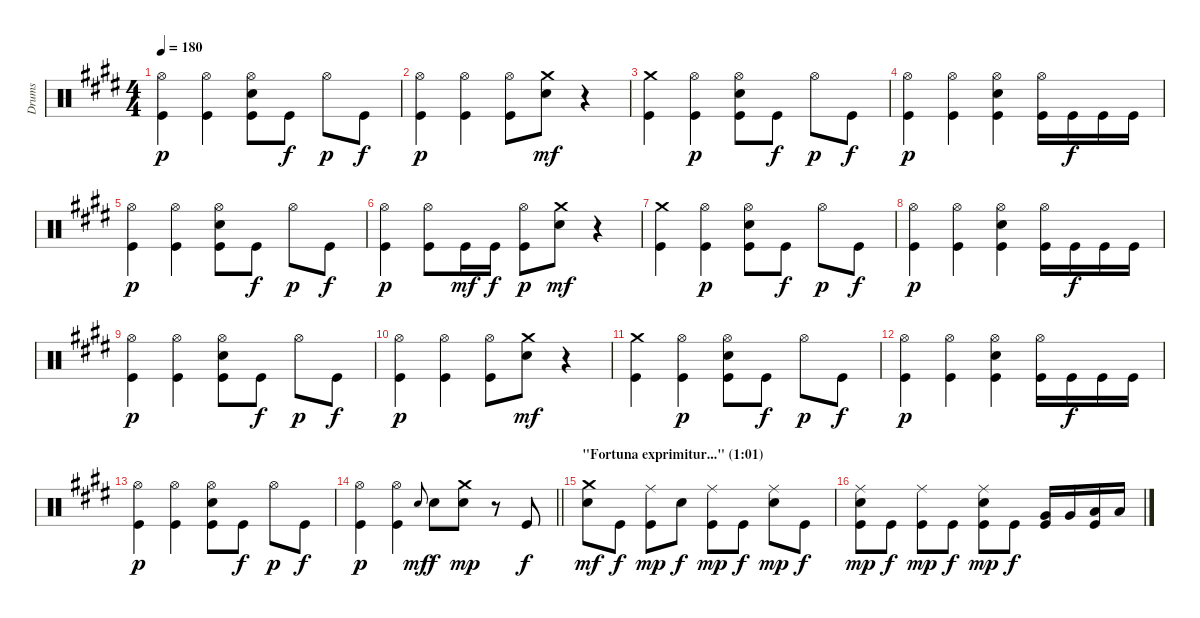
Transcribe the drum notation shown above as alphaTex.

\track ("Drums" "Drums") {instrument percussion}
\staff {score}
\articulation defaults
\ts (4 4)
\tempo 180
\clef neutral
\ks c#minor
("Hi-Hat (open)" "Kick (hit)").4{dy p} ("Hi-Hat (open)" "Kick (hit)").4 ("Hi-Hat (open)" "Snare (hit) 2" "Kick (hit)").8 "Kick (hit)".8{dy f} "Hi-Hat (open)".8{dy p} "Kick (hit)".8{dy f} |
("Hi-Hat (open)" "Kick (hit)").4{dy p} ("Hi-Hat (open)" "Kick (hit)").4 ("Hi-Hat (open)" "Kick (hit)").8 ("Crash medium (hit)" "Snare (hit) 2").8{dy mf} r.4 |
("Crash medium (hit)" "Kick (hit)").4 ("Hi-Hat (open)" "Kick (hit)").4{dy p} ("Hi-Hat (open)" "Snare (hit) 2" "Kick (hit)").8 "Kick (hit)".8{dy f} "Hi-Hat (open)".8{dy p} "Kick (hit)".8{dy f} |
("Hi-Hat (open)" "Kick (hit)").4{dy p} ("Hi-Hat (open)" "Kick (hit)").4 ("Hi-Hat (open)" "Snare (hit) 2" "Kick (hit)").4 ("Hi-Hat (open)" "Kick (hit)").16 "Kick (hit)".16{dy f} "Kick (hit)".16 "Kick (hit)".16 |
("Hi-Hat (open)" "Kick (hit)").4{dy p} ("Hi-Hat (open)" "Kick (hit)").4 ("Hi-Hat (open)" "Snare (hit) 2" "Kick (hit)").8 "Kick (hit)".8{dy f} "Hi-Hat (open)".8{dy p} "Kick (hit)".8{dy f} |
("Hi-Hat (open)" "Kick (hit)").4{dy p} ("Hi-Hat (open)" "Kick (hit)").8 "Kick (hit)".16{dy mf} "Kick (hit)".16{dy f} ("Hi-Hat (open)" "Kick (hit)").8{dy p} ("Crash medium (hit)" "Snare (hit) 2").8{dy mf} r.4 |
("Crash medium (hit)" "Kick (hit)").4 ("Hi-Hat (open)" "Kick (hit)").4{dy p} ("Hi-Hat (open)" "Snare (hit) 2" "Kick (hit)").8 "Kick (hit)".8{dy f} "Hi-Hat (open)".8{dy p} "Kick (hit)".8{dy f} |
("Hi-Hat (open)" "Kick (hit)").4{dy p} ("Hi-Hat (open)" "Kick (hit)").4 ("Hi-Hat (open)" "Snare (hit) 2" "Kick (hit)").4 ("Hi-Hat (open)" "Kick (hit)").16 "Kick (hit)".16{dy f} "Kick (hit)".16 "Kick (hit)".16 |
("Hi-Hat (open)" "Kick (hit)").4{dy p} ("Hi-Hat (open)" "Kick (hit)").4 ("Hi-Hat (open)" "Snare (hit) 2" "Kick (hit)").8 "Kick (hit)".8{dy f} "Hi-Hat (open)".8{dy p} "Kick (hit)".8{dy f} |
("Hi-Hat (open)" "Kick (hit)").4{dy p} ("Hi-Hat (open)" "Kick (hit)").4 ("Hi-Hat (open)" "Kick (hit)").8 ("Crash medium (hit)" "Snare (hit) 2").8{dy mf} r.4 |
("Crash medium (hit)" "Kick (hit)").4 ("Hi-Hat (open)" "Kick (hit)").4{dy p} ("Hi-Hat (open)" "Snare (hit) 2" "Kick (hit)").8 "Kick (hit)".8{dy f} "Hi-Hat (open)".8{dy p} "Kick (hit)".8{dy f} |
("Hi-Hat (open)" "Kick (hit)").4{dy p} ("Hi-Hat (open)" "Kick (hit)").4 ("Hi-Hat (open)" "Snare (hit) 2" "Kick (hit)").4 ("Hi-Hat (open)" "Kick (hit)").16 "Kick (hit)".16{dy f} "Kick (hit)".16 "Kick (hit)".16 |
("Hi-Hat (open)" "Kick (hit)").4{dy p} ("Hi-Hat (open)" "Kick (hit)").4 ("Hi-Hat (open)" "Snare (hit) 2" "Kick (hit)").8 "Kick (hit)".8{dy f} "Hi-Hat (open)".8{dy p} "Kick (hit)".8{dy f} |
\barLineRight lightlight
("Hi-Hat (open)" "Kick (hit)").4{dy p} ("Hi-Hat (open)" "Kick (hit)").4 "Snare (hit) 2".8{gr onbeat dy mf} "Snare (hit) 2".8{dy f} ("Crash medium (hit)" "Snare (hit) 2").8{dy mp} r.8 "Kick (hit)".8{dy f} |
\section ("" "\"Fortuna exprimitur...\" (1:01)")
("Crash medium (hit)" "Snare (hit) 2").8{dy mf} "Kick (hit)".8{dy f} ("Ride (middle)" "Kick (hit)").8{dy mp} "Snare (hit) 2".8{dy f} ("Ride (middle)" "Kick (hit)").8{dy mp} "Kick (hit)".8{dy f} ("Ride (middle)" "Snare (hit) 2").8{dy mp} "Kick (hit)".8{dy f} |
("Ride (middle)" "Snare (hit) 2" "Kick (hit)").8{dy mp} "Kick (hit)".8{dy f} ("Ride (middle)" "Kick (hit)").8{dy mp} "Kick (hit)".8{dy f} ("Ride (middle)" "Snare (hit) 2" "Kick (hit)").8{dy mp} "Kick (hit)".8{dy f} ("Very Low Tom (hit)" "Kick (hit)").16 "Very Low Tom (hit)".16 ("Low Floor Tom (hit)" "Kick (hit)").16 "Low Floor Tom (hit)".16
